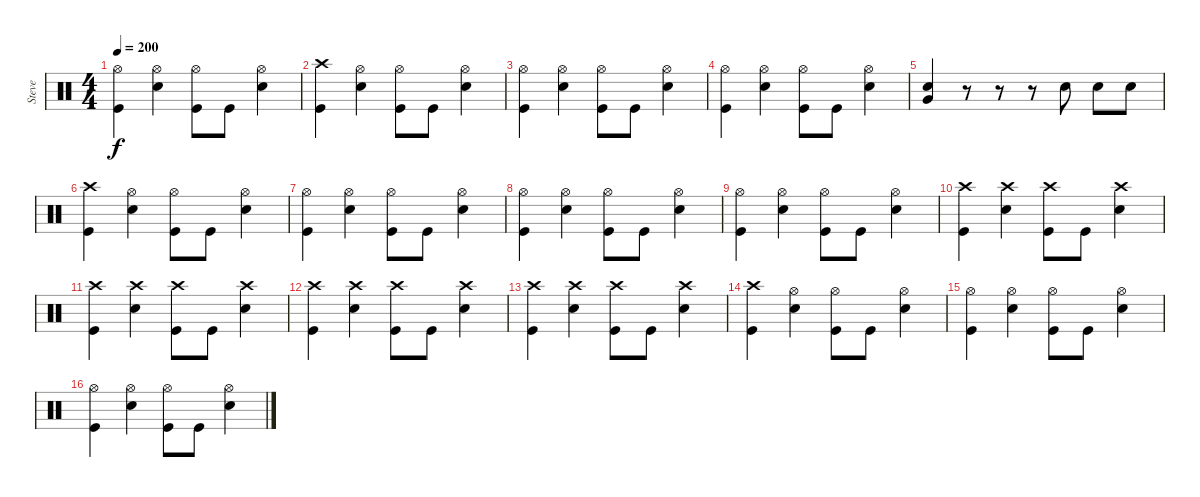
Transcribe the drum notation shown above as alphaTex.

\track ("Steve" "Steve") {instrument percussion}
\staff {score}
\articulation defaults
\ts (4 4)
\tempo 200
\clef neutral
\ks c
("Hi-Hat (open)" "Kick (hit)").4{dy f} ("Hi-Hat (open)" "Snare (hit) 2").4 ("Hi-Hat (open)" "Kick (hit)").8 "Kick (hit)".8 ("Hi-Hat (open)" "Snare (hit) 2").4 |
("Crash high (hit)" "Kick (hit)").4 ("Hi-Hat (open)" "Snare (hit) 2").4 ("Hi-Hat (open)" "Kick (hit)").8 "Kick (hit)".8 ("Hi-Hat (open)" "Snare (hit) 2").4 |
("Hi-Hat (open)" "Kick (hit)").4 ("Hi-Hat (open)" "Snare (hit) 2").4 ("Hi-Hat (open)" "Kick (hit)").8 "Kick (hit)".8 ("Hi-Hat (open)" "Snare (hit) 2").4 |
("Hi-Hat (open)" "Kick (hit)").4 ("Hi-Hat (open)" "Snare (hit) 2").4 ("Hi-Hat (open)" "Kick (hit)").8 "Kick (hit)".8 ("Hi-Hat (open)" "Snare (hit) 2").4 |
("Very Low Tom (hit)" "Snare (hit) 2").4 r.8 r.8 r.8 "Snare (hit) 2".8 "Snare (hit) 2".8 "Snare (hit) 2".8 |
("Crash high (hit)" "Kick (hit)").4 ("Hi-Hat (open)" "Snare (hit) 2").4 ("Hi-Hat (open)" "Kick (hit)").8 "Kick (hit)".8 ("Hi-Hat (open)" "Snare (hit) 2").4 |
("Hi-Hat (open)" "Kick (hit)").4 ("Hi-Hat (open)" "Snare (hit) 2").4 ("Hi-Hat (open)" "Kick (hit)").8 "Kick (hit)".8 ("Hi-Hat (open)" "Snare (hit) 2").4 |
("Hi-Hat (open)" "Kick (hit)").4 ("Hi-Hat (open)" "Snare (hit) 2").4 ("Hi-Hat (open)" "Kick (hit)").8 "Kick (hit)".8 ("Hi-Hat (open)" "Snare (hit) 2").4 |
("Hi-Hat (open)" "Kick (hit)").4 ("Hi-Hat (open)" "Snare (hit) 2").4 ("Hi-Hat (open)" "Kick (hit)").8 "Kick (hit)".8 ("Hi-Hat (open)" "Snare (hit) 2").4 |
("Crash high (hit)" "Kick (hit)").4 ("Crash high (hit)" "Snare (hit) 2").4 ("Crash high (hit)" "Kick (hit)").8 "Kick (hit)".8 ("Crash high (hit)" "Snare (hit) 2").4 |
("Crash high (hit)" "Kick (hit)").4 ("Crash high (hit)" "Snare (hit) 2").4 ("Crash high (hit)" "Kick (hit)").8 "Kick (hit)".8 ("Crash high (hit)" "Snare (hit) 2").4 |
("Crash high (hit)" "Kick (hit)").4 ("Crash high (hit)" "Snare (hit) 2").4 ("Crash high (hit)" "Kick (hit)").8 "Kick (hit)".8 ("Crash high (hit)" "Snare (hit) 2").4 |
("Crash high (hit)" "Kick (hit)").4 ("Crash high (hit)" "Snare (hit) 2").4 ("Crash high (hit)" "Kick (hit)").8 "Kick (hit)".8 ("Crash high (hit)" "Snare (hit) 2").4 |
("Crash high (hit)" "Kick (hit)").4 ("Hi-Hat (open)" "Snare (hit) 2").4 ("Hi-Hat (open)" "Kick (hit)").8 "Kick (hit)".8 ("Hi-Hat (open)" "Snare (hit) 2").4 |
("Hi-Hat (open)" "Kick (hit)").4 ("Hi-Hat (open)" "Snare (hit) 2").4 ("Hi-Hat (open)" "Kick (hit)").8 "Kick (hit)".8 ("Hi-Hat (open)" "Snare (hit) 2").4 |
("Hi-Hat (open)" "Kick (hit)").4 ("Hi-Hat (open)" "Snare (hit) 2").4 ("Hi-Hat (open)" "Kick (hit)").8 "Kick (hit)".8 ("Hi-Hat (open)" "Snare (hit) 2").4
